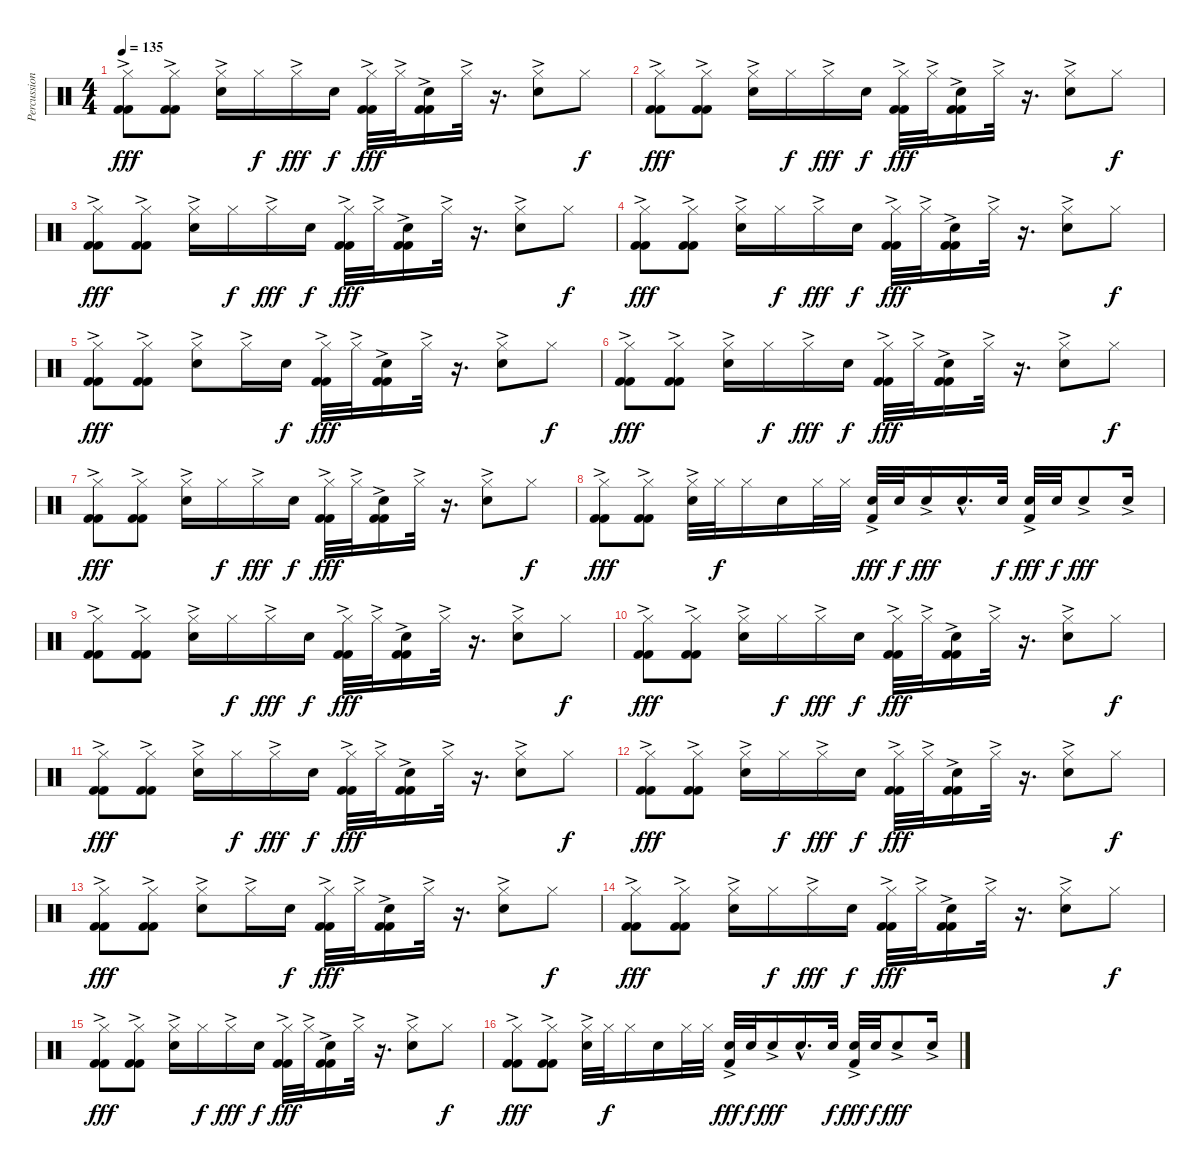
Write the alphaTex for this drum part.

\track ("Percussions" "Percussion") {instrument percussion}
\staff {score}
\articulation defaults
\ts (4 4)
\tempo 135
\clef neutral
\ks c
("Hi-Hat (closed)"{ac} "Kick (hit) 2"{ac} "Kick (hit) 2"{ac}).8{dy fff} ("Hi-Hat (closed)"{ac} "Kick (hit) 2"{ac} "Kick (hit) 2"{ac}).8 ("Hi-Hat (closed)" "Electric Snare (hit)"{ac}).16 "Hi-Hat (closed)".16{dy f} "Hi-Hat (closed)"{ac}.16{dy fff} "Electric Snare (hit)".16{dy f} ("Hi-Hat (closed)"{ac} "Kick (hit) 2"{ac} "Kick (hit) 2"{ac}).32{dy fff} "Hi-Hat (closed)"{ac}.32 ("Electric Snare (hit)"{ac} "Kick (hit) 2"{ac} "Kick (hit) 2"{ac}).16 "Hi-Hat (closed)"{ac}.32 r.16{d} ("Hi-Hat (closed)"{ac} "Electric Snare (hit)"{ac}).8 "Hi-Hat (closed)".8{dy f} |
("Hi-Hat (closed)"{ac} "Kick (hit) 2"{ac} "Kick (hit) 2"{ac}).8{dy fff} ("Hi-Hat (closed)"{ac} "Kick (hit) 2"{ac} "Kick (hit) 2"{ac}).8 ("Hi-Hat (closed)" "Electric Snare (hit)"{ac}).16 "Hi-Hat (closed)".16{dy f} "Hi-Hat (closed)"{ac}.16{dy fff} "Electric Snare (hit)".16{dy f} ("Hi-Hat (closed)"{ac} "Kick (hit) 2"{ac} "Kick (hit) 2"{ac}).32{dy fff} "Hi-Hat (closed)"{ac}.32 ("Electric Snare (hit)"{ac} "Kick (hit) 2"{ac} "Kick (hit) 2"{ac}).16 "Hi-Hat (closed)"{ac}.32 r.16{d} ("Hi-Hat (closed)"{ac} "Electric Snare (hit)"{ac}).8 "Hi-Hat (closed)".8{dy f} |
("Hi-Hat (closed)"{ac} "Kick (hit) 2"{ac} "Kick (hit) 2"{ac}).8{dy fff} ("Hi-Hat (closed)"{ac} "Kick (hit) 2"{ac} "Kick (hit) 2"{ac}).8 ("Hi-Hat (closed)" "Electric Snare (hit)"{ac}).16 "Hi-Hat (closed)".16{dy f} "Hi-Hat (closed)"{ac}.16{dy fff} "Electric Snare (hit)".16{dy f} ("Hi-Hat (closed)"{ac} "Kick (hit) 2"{ac} "Kick (hit) 2"{ac}).32{dy fff} "Hi-Hat (closed)"{ac}.32 ("Electric Snare (hit)"{ac} "Kick (hit) 2"{ac} "Kick (hit) 2"{ac}).16 "Hi-Hat (closed)"{ac}.32 r.16{d} ("Hi-Hat (closed)"{ac} "Electric Snare (hit)"{ac}).8 "Hi-Hat (closed)".8{dy f} |
("Hi-Hat (closed)"{ac} "Kick (hit) 2"{ac} "Kick (hit) 2"{ac}).8{dy fff} ("Hi-Hat (closed)"{ac} "Kick (hit) 2"{ac} "Kick (hit) 2"{ac}).8 ("Hi-Hat (closed)" "Electric Snare (hit)"{ac}).16 "Hi-Hat (closed)".16{dy f} "Hi-Hat (closed)"{ac}.16{dy fff} "Electric Snare (hit)".16{dy f} ("Hi-Hat (closed)"{ac} "Kick (hit) 2"{ac} "Kick (hit) 2"{ac}).32{dy fff} "Hi-Hat (closed)"{ac}.32 ("Electric Snare (hit)"{ac} "Kick (hit) 2"{ac} "Kick (hit) 2"{ac}).16 "Hi-Hat (closed)"{ac}.32 r.16{d} ("Hi-Hat (closed)"{ac} "Electric Snare (hit)"{ac}).8 "Hi-Hat (closed)".8{dy f} |
("Hi-Hat (closed)"{ac} "Kick (hit) 2"{ac} "Kick (hit) 2"{ac}).8{dy fff} ("Hi-Hat (closed)"{ac} "Kick (hit) 2"{ac} "Kick (hit) 2"{ac}).8 ("Hi-Hat (closed)" "Electric Snare (hit)"{ac}).8 "Hi-Hat (closed)"{ac}.16 "Electric Snare (hit)".16{dy f} ("Hi-Hat (closed)"{ac} "Kick (hit) 2"{ac} "Kick (hit) 2"{ac}).32{dy fff} "Hi-Hat (closed)"{ac}.32 ("Electric Snare (hit)"{ac} "Kick (hit) 2"{ac} "Kick (hit) 2"{ac}).16 "Hi-Hat (closed)"{ac}.32 r.16{d} ("Hi-Hat (closed)"{ac} "Electric Snare (hit)"{ac}).8 "Hi-Hat (closed)".8{dy f} |
("Hi-Hat (closed)"{ac} "Kick (hit) 2"{ac} "Kick (hit) 2"{ac}).8{dy fff} ("Hi-Hat (closed)"{ac} "Kick (hit) 2"{ac} "Kick (hit) 2"{ac}).8 ("Hi-Hat (closed)" "Electric Snare (hit)"{ac}).16 "Hi-Hat (closed)".16{dy f} "Hi-Hat (closed)"{ac}.16{dy fff} "Electric Snare (hit)".16{dy f} ("Hi-Hat (closed)"{ac} "Kick (hit) 2"{ac} "Kick (hit) 2"{ac}).32{dy fff} "Hi-Hat (closed)"{ac}.32 ("Electric Snare (hit)"{ac} "Kick (hit) 2"{ac} "Kick (hit) 2"{ac}).16 "Hi-Hat (closed)"{ac}.32 r.16{d} ("Hi-Hat (closed)"{ac} "Electric Snare (hit)"{ac}).8 "Hi-Hat (closed)".8{dy f} |
("Hi-Hat (closed)"{ac} "Kick (hit) 2"{ac} "Kick (hit) 2"{ac}).8{dy fff} ("Hi-Hat (closed)"{ac} "Kick (hit) 2"{ac} "Kick (hit) 2"{ac}).8 ("Hi-Hat (closed)" "Electric Snare (hit)"{ac}).16 "Hi-Hat (closed)".16{dy f} "Hi-Hat (closed)"{ac}.16{dy fff} "Electric Snare (hit)".16{dy f} ("Hi-Hat (closed)"{ac} "Kick (hit) 2"{ac} "Kick (hit) 2"{ac}).32{dy fff} "Hi-Hat (closed)"{ac}.32 ("Electric Snare (hit)"{ac} "Kick (hit) 2"{ac} "Kick (hit) 2"{ac}).16 "Hi-Hat (closed)"{ac}.32 r.16{d} ("Hi-Hat (closed)"{ac} "Electric Snare (hit)"{ac}).8 "Hi-Hat (closed)".8{dy f} |
("Hi-Hat (closed)"{ac} "Kick (hit) 2" "Kick (hit) 2").8{dy fff} ("Hi-Hat (closed)"{ac} "Kick (hit) 2" "Kick (hit) 2").8 ("Hi-Hat (closed)" "Electric Snare (hit)"{ac}).32 "Hi-Hat (closed)".32{dy f} "Hi-Hat (closed)".16 "Electric Snare (hit)".16 "Hi-Hat (closed)".32 "Hi-Hat (closed)".32 ("Electric Snare (hit)"{ac} "Kick (hit) 2"{ac}).32{dy fff} "Electric Snare (hit)".32{dy f} "Electric Snare (hit)"{ac}.16{dy fff} "Electric Snare (hit)"{hac}.16{d} "Electric Snare (hit)".32{dy f} ("Electric Snare (hit)"{ac} "Kick (hit) 2"{ac}).32{dy fff} "Electric Snare (hit)".32{dy f} "Electric Snare (hit)"{ac}.8{dy fff} "Electric Snare (hit)"{ac}.16 |
("Hi-Hat (closed)"{ac} "Kick (hit) 2"{ac} "Kick (hit) 2"{ac}).8 ("Hi-Hat (closed)"{ac} "Kick (hit) 2"{ac} "Kick (hit) 2"{ac}).8 ("Hi-Hat (closed)" "Electric Snare (hit)"{ac}).16 "Hi-Hat (closed)".16{dy f} "Hi-Hat (closed)"{ac}.16{dy fff} "Electric Snare (hit)".16{dy f} ("Hi-Hat (closed)"{ac} "Kick (hit) 2"{ac} "Kick (hit) 2"{ac}).32{dy fff} "Hi-Hat (closed)"{ac}.32 ("Electric Snare (hit)"{ac} "Kick (hit) 2"{ac} "Kick (hit) 2"{ac}).16 "Hi-Hat (closed)"{ac}.32 r.16{d} ("Hi-Hat (closed)"{ac} "Electric Snare (hit)"{ac}).8 "Hi-Hat (closed)".8{dy f} |
("Hi-Hat (closed)"{ac} "Kick (hit) 2"{ac} "Kick (hit) 2"{ac}).8{dy fff} ("Hi-Hat (closed)"{ac} "Kick (hit) 2"{ac} "Kick (hit) 2"{ac}).8 ("Hi-Hat (closed)" "Electric Snare (hit)"{ac}).16 "Hi-Hat (closed)".16{dy f} "Hi-Hat (closed)"{ac}.16{dy fff} "Electric Snare (hit)".16{dy f} ("Hi-Hat (closed)"{ac} "Kick (hit) 2"{ac} "Kick (hit) 2"{ac}).32{dy fff} "Hi-Hat (closed)"{ac}.32 ("Electric Snare (hit)"{ac} "Kick (hit) 2"{ac} "Kick (hit) 2"{ac}).16 "Hi-Hat (closed)"{ac}.32 r.16{d} ("Hi-Hat (closed)"{ac} "Electric Snare (hit)"{ac}).8 "Hi-Hat (closed)".8{dy f} |
("Hi-Hat (closed)"{ac} "Kick (hit) 2"{ac} "Kick (hit) 2"{ac}).8{dy fff} ("Hi-Hat (closed)"{ac} "Kick (hit) 2"{ac} "Kick (hit) 2"{ac}).8 ("Hi-Hat (closed)" "Electric Snare (hit)"{ac}).16 "Hi-Hat (closed)".16{dy f} "Hi-Hat (closed)"{ac}.16{dy fff} "Electric Snare (hit)".16{dy f} ("Hi-Hat (closed)"{ac} "Kick (hit) 2"{ac} "Kick (hit) 2"{ac}).32{dy fff} "Hi-Hat (closed)"{ac}.32 ("Electric Snare (hit)"{ac} "Kick (hit) 2"{ac} "Kick (hit) 2"{ac}).16 "Hi-Hat (closed)"{ac}.32 r.16{d} ("Hi-Hat (closed)"{ac} "Electric Snare (hit)"{ac}).8 "Hi-Hat (closed)".8{dy f} |
("Hi-Hat (closed)"{ac} "Kick (hit) 2"{ac} "Kick (hit) 2"{ac}).8{dy fff} ("Hi-Hat (closed)"{ac} "Kick (hit) 2"{ac} "Kick (hit) 2"{ac}).8 ("Hi-Hat (closed)" "Electric Snare (hit)"{ac}).16 "Hi-Hat (closed)".16{dy f} "Hi-Hat (closed)"{ac}.16{dy fff} "Electric Snare (hit)".16{dy f} ("Hi-Hat (closed)"{ac} "Kick (hit) 2"{ac} "Kick (hit) 2"{ac}).32{dy fff} "Hi-Hat (closed)"{ac}.32 ("Electric Snare (hit)"{ac} "Kick (hit) 2"{ac} "Kick (hit) 2"{ac}).16 "Hi-Hat (closed)"{ac}.32 r.16{d} ("Hi-Hat (closed)"{ac} "Electric Snare (hit)"{ac}).8 "Hi-Hat (closed)".8{dy f} |
("Hi-Hat (closed)"{ac} "Kick (hit) 2"{ac} "Kick (hit) 2"{ac}).8{dy fff} ("Hi-Hat (closed)"{ac} "Kick (hit) 2"{ac} "Kick (hit) 2"{ac}).8 ("Hi-Hat (closed)" "Electric Snare (hit)"{ac}).8 "Hi-Hat (closed)"{ac}.16 "Electric Snare (hit)".16{dy f} ("Hi-Hat (closed)"{ac} "Kick (hit) 2"{ac} "Kick (hit) 2"{ac}).32{dy fff} "Hi-Hat (closed)"{ac}.32 ("Electric Snare (hit)"{ac} "Kick (hit) 2"{ac} "Kick (hit) 2"{ac}).16 "Hi-Hat (closed)"{ac}.32 r.16{d} ("Hi-Hat (closed)"{ac} "Electric Snare (hit)"{ac}).8 "Hi-Hat (closed)".8{dy f} |
("Hi-Hat (closed)"{ac} "Kick (hit) 2"{ac} "Kick (hit) 2"{ac}).8{dy fff} ("Hi-Hat (closed)"{ac} "Kick (hit) 2"{ac} "Kick (hit) 2"{ac}).8 ("Hi-Hat (closed)" "Electric Snare (hit)"{ac}).16 "Hi-Hat (closed)".16{dy f} "Hi-Hat (closed)"{ac}.16{dy fff} "Electric Snare (hit)".16{dy f} ("Hi-Hat (closed)"{ac} "Kick (hit) 2"{ac} "Kick (hit) 2"{ac}).32{dy fff} "Hi-Hat (closed)"{ac}.32 ("Electric Snare (hit)"{ac} "Kick (hit) 2"{ac} "Kick (hit) 2"{ac}).16 "Hi-Hat (closed)"{ac}.32 r.16{d} ("Hi-Hat (closed)"{ac} "Electric Snare (hit)"{ac}).8 "Hi-Hat (closed)".8{dy f} |
("Hi-Hat (closed)"{ac} "Kick (hit) 2"{ac} "Kick (hit) 2"{ac}).8{dy fff} ("Hi-Hat (closed)"{ac} "Kick (hit) 2"{ac} "Kick (hit) 2"{ac}).8 ("Hi-Hat (closed)" "Electric Snare (hit)"{ac}).16 "Hi-Hat (closed)".16{dy f} "Hi-Hat (closed)"{ac}.16{dy fff} "Electric Snare (hit)".16{dy f} ("Hi-Hat (closed)"{ac} "Kick (hit) 2"{ac} "Kick (hit) 2"{ac}).32{dy fff} "Hi-Hat (closed)"{ac}.32 ("Electric Snare (hit)"{ac} "Kick (hit) 2"{ac} "Kick (hit) 2"{ac}).16 "Hi-Hat (closed)"{ac}.32 r.16{d} ("Hi-Hat (closed)"{ac} "Electric Snare (hit)"{ac}).8 "Hi-Hat (closed)".8{dy f} |
("Hi-Hat (closed)"{ac} "Kick (hit) 2" "Kick (hit) 2").8{dy fff} ("Hi-Hat (closed)"{ac} "Kick (hit) 2" "Kick (hit) 2").8 ("Hi-Hat (closed)" "Electric Snare (hit)"{ac}).32 "Hi-Hat (closed)".32{dy f} "Hi-Hat (closed)".16 "Electric Snare (hit)".16 "Hi-Hat (closed)".32 "Hi-Hat (closed)".32 ("Electric Snare (hit)"{ac} "Kick (hit) 2"{ac}).32{dy fff} "Electric Snare (hit)".32{dy f} "Electric Snare (hit)"{ac}.16{dy fff} "Electric Snare (hit)"{hac}.16{d} "Electric Snare (hit)".32{dy f} ("Electric Snare (hit)"{ac} "Kick (hit) 2"{ac}).32{dy fff} "Electric Snare (hit)".32{dy f} "Electric Snare (hit)"{ac}.8{dy fff} "Electric Snare (hit)"{ac}.16
